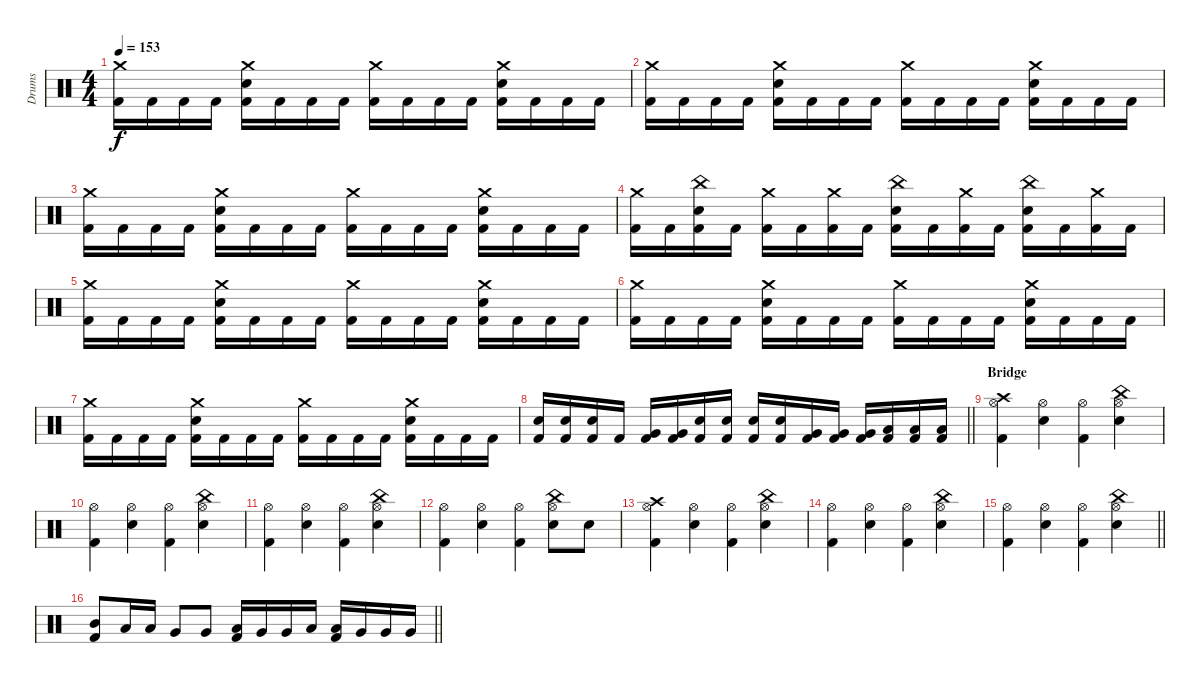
\track ("Drums" "Drums") {instrument percussion}
\staff {score}
\articulation defaults
\ts (4 4)
\tempo 153
\clef neutral
\ks c
("Crash medium (hit)" "Kick (hit) 2").16{dy f} "Kick (hit) 2".16 "Kick (hit) 2".16 "Kick (hit) 2".16 ("Crash medium (hit)" "Electric Snare (hit)" "Kick (hit) 2").16 "Kick (hit) 2".16 "Kick (hit) 2".16 "Kick (hit) 2".16 ("Crash medium (hit)" "Kick (hit) 2").16 "Kick (hit) 2".16 "Kick (hit) 2".16 "Kick (hit) 2".16 ("Crash medium (hit)" "Electric Snare (hit)" "Kick (hit) 2").16 "Kick (hit) 2".16 "Kick (hit) 2".16 "Kick (hit) 2".16 |
("Crash medium (hit)" "Kick (hit) 2").16 "Kick (hit) 2".16 "Kick (hit) 2".16 "Kick (hit) 2".16 ("Crash medium (hit)" "Electric Snare (hit)" "Kick (hit) 2").16 "Kick (hit) 2".16 "Kick (hit) 2".16 "Kick (hit) 2".16 ("Crash medium (hit)" "Kick (hit) 2").16 "Kick (hit) 2".16 "Kick (hit) 2".16 "Kick (hit) 2".16 ("Crash medium (hit)" "Electric Snare (hit)" "Kick (hit) 2").16 "Kick (hit) 2".16 "Kick (hit) 2".16 "Kick (hit) 2".16 |
("Crash medium (hit)" "Kick (hit) 2").16 "Kick (hit) 2".16 "Kick (hit) 2".16 "Kick (hit) 2".16 ("Crash medium (hit)" "Electric Snare (hit)" "Kick (hit) 2").16 "Kick (hit) 2".16 "Kick (hit) 2".16 "Kick (hit) 2".16 ("Crash medium (hit)" "Kick (hit) 2").16 "Kick (hit) 2".16 "Kick (hit) 2".16 "Kick (hit) 2".16 ("Crash medium (hit)" "Electric Snare (hit)" "Kick (hit) 2").16 "Kick (hit) 2".16 "Kick (hit) 2".16 "Kick (hit) 2".16 |
("Crash medium (hit)" "Kick (hit) 2").16 "Kick (hit) 2".16 ("China (hit)" "Electric Snare (hit)" "Kick (hit) 2").16 "Kick (hit) 2".16 ("Crash medium (hit)" "Kick (hit) 2").16 "Kick (hit) 2".16 ("Crash medium (hit)" "Kick (hit) 2").16 "Kick (hit) 2".16 ("China (hit)" "Electric Snare (hit)" "Kick (hit) 2").16 "Kick (hit) 2".16 ("Crash medium (hit)" "Kick (hit) 2").16 "Kick (hit) 2".16 ("China (hit)" "Electric Snare (hit)" "Kick (hit) 2").16 "Kick (hit) 2".16 ("Crash medium (hit)" "Kick (hit) 2").16 "Kick (hit) 2".16 |
("Crash medium (hit)" "Kick (hit) 2").16 "Kick (hit) 2".16 "Kick (hit) 2".16 "Kick (hit) 2".16 ("Crash medium (hit)" "Electric Snare (hit)" "Kick (hit) 2").16 "Kick (hit) 2".16 "Kick (hit) 2".16 "Kick (hit) 2".16 ("Crash medium (hit)" "Kick (hit) 2").16 "Kick (hit) 2".16 "Kick (hit) 2".16 "Kick (hit) 2".16 ("Crash medium (hit)" "Electric Snare (hit)" "Kick (hit) 2").16 "Kick (hit) 2".16 "Kick (hit) 2".16 "Kick (hit) 2".16 |
("Crash medium (hit)" "Kick (hit) 2").16 "Kick (hit) 2".16 "Kick (hit) 2".16 "Kick (hit) 2".16 ("Crash medium (hit)" "Electric Snare (hit)" "Kick (hit) 2").16 "Kick (hit) 2".16 "Kick (hit) 2".16 "Kick (hit) 2".16 ("Crash medium (hit)" "Kick (hit) 2").16 "Kick (hit) 2".16 "Kick (hit) 2".16 "Kick (hit) 2".16 ("Crash medium (hit)" "Electric Snare (hit)" "Kick (hit) 2").16 "Kick (hit) 2".16 "Kick (hit) 2".16 "Kick (hit) 2".16 |
("Crash medium (hit)" "Kick (hit) 2").16 "Kick (hit) 2".16 "Kick (hit) 2".16 "Kick (hit) 2".16 ("Crash medium (hit)" "Electric Snare (hit)" "Kick (hit) 2").16 "Kick (hit) 2".16 "Kick (hit) 2".16 "Kick (hit) 2".16 ("Crash medium (hit)" "Kick (hit) 2").16 "Kick (hit) 2".16 "Kick (hit) 2".16 "Kick (hit) 2".16 ("Crash medium (hit)" "Electric Snare (hit)" "Kick (hit) 2").16 "Kick (hit) 2".16 "Kick (hit) 2".16 "Kick (hit) 2".16 |
\barLineRight lightlight
("Electric Snare (hit)" "Kick (hit) 2").16 ("Electric Snare (hit)" "Kick (hit) 2").16 ("Electric Snare (hit)" "Kick (hit) 2").16 "Kick (hit) 2".16 ("Very Low Tom (hit)" "Kick (hit) 2").16 ("Very Low Tom (hit)" "Kick (hit) 2").16 ("Electric Snare (hit)" "Kick (hit) 2").16 ("Electric Snare (hit)" "Kick (hit) 2").16 ("Electric Snare (hit)" "Kick (hit) 2").16 ("Electric Snare (hit)" "Kick (hit) 2").16 ("Very Low Tom (hit)" "Kick (hit) 2").16 ("Very Low Tom (hit)" "Kick (hit) 2").16 ("Very Low Tom (hit)" "Kick (hit) 2").16 ("Low Tom (hit)" "Kick (hit) 2").16 ("Low Tom (hit)" "Kick (hit) 2").16 ("Low Tom (hit)" "Kick (hit) 2").16 |
\section ("" "Bridge")
("Crash high (hit)" "Hi-Hat (open)" "Kick (hit) 2").4 ("Hi-Hat (open)" "Electric Snare (hit)").4 ("Hi-Hat (open)" "Kick (hit) 2").4 ("China (hit)" "Hi-Hat (open)" "Electric Snare (hit)").4 |
("Hi-Hat (open)" "Kick (hit) 2").4 ("Hi-Hat (open)" "Electric Snare (hit)").4 ("Hi-Hat (open)" "Kick (hit) 2").4 ("China (hit)" "Hi-Hat (open)" "Electric Snare (hit)").4 |
("Hi-Hat (open)" "Kick (hit) 2").4 ("Hi-Hat (open)" "Electric Snare (hit)").4 ("Hi-Hat (open)" "Kick (hit) 2").4 ("China (hit)" "Hi-Hat (open)" "Electric Snare (hit)").4 |
("Hi-Hat (open)" "Kick (hit) 2").4 ("Hi-Hat (open)" "Electric Snare (hit)").4 ("Hi-Hat (open)" "Kick (hit) 2").4 ("China (hit)" "Hi-Hat (open)" "Electric Snare (hit)").8 "Electric Snare (hit)".8 |
("Crash high (hit)" "Hi-Hat (open)" "Kick (hit) 2").4 ("Hi-Hat (open)" "Electric Snare (hit)").4 ("Hi-Hat (open)" "Kick (hit) 2").4 ("China (hit)" "Hi-Hat (open)" "Electric Snare (hit)").4 |
("Hi-Hat (open)" "Kick (hit) 2").4 ("Hi-Hat (open)" "Electric Snare (hit)").4 ("Hi-Hat (open)" "Kick (hit) 2").4 ("China (hit)" "Hi-Hat (open)" "Electric Snare (hit)").4 |
\barLineRight lightlight
("Hi-Hat (open)" "Kick (hit) 2").4 ("Hi-Hat (open)" "Electric Snare (hit)").4 ("Hi-Hat (open)" "Kick (hit) 2").4 ("China (hit)" "Hi-Hat (open)" "Electric Snare (hit)").4 |
\section ("" "")
\barLineRight lightlight
("Mid Tom (hit)" "Kick (hit) 2").8 "Low Tom (hit)".16 "Low Tom (hit)".16 "Very Low Tom (hit)".8 "Very Low Tom (hit)".8 ("Low Tom (hit)" "Kick (hit) 2").16 "Very Low Tom (hit)".16 "Very Low Tom (hit)".16 "Low Floor Tom (hit)".16 ("Low Floor Tom (hit)" "Kick (hit) 2").16 "Very Low Tom (hit)".16 "Very Low Tom (hit)".16 "Very Low Tom (hit)".16
